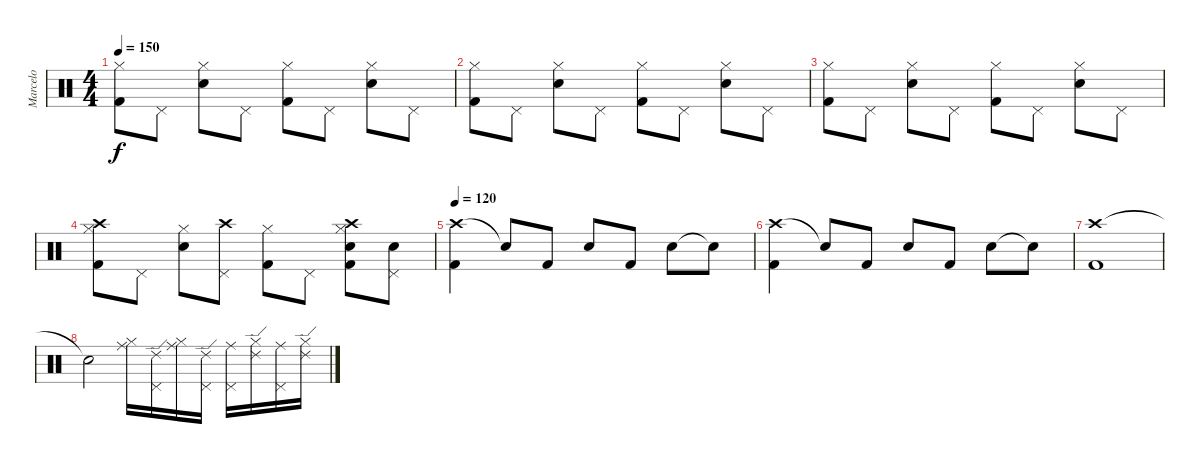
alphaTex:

\track ("Marcelo" "Marcelo") {instrument percussion}
\staff {score}
\articulation defaults
\ts (4 4)
\tempo 150
\clef neutral
\ks c
("Hi-Hat (closed)" "Kick (hit) 2").8{dy f} "Pedal Hi-Hat (hit)".8 ("Hi-Hat (closed)" "Electric Snare (hit)").8 "Pedal Hi-Hat (hit)".8 ("Hi-Hat (closed)" "Kick (hit) 2").8 "Pedal Hi-Hat (hit)".8 ("Hi-Hat (closed)" "Electric Snare (hit)").8 "Pedal Hi-Hat (hit)".8 |
("Hi-Hat (closed)" "Kick (hit) 2").8 "Pedal Hi-Hat (hit)".8 ("Hi-Hat (closed)" "Electric Snare (hit)").8 "Pedal Hi-Hat (hit)".8 ("Hi-Hat (closed)" "Kick (hit) 2").8 "Pedal Hi-Hat (hit)".8 ("Hi-Hat (closed)" "Electric Snare (hit)").8 "Pedal Hi-Hat (hit)".8 |
("Hi-Hat (closed)" "Kick (hit) 2").8 "Pedal Hi-Hat (hit)".8 ("Hi-Hat (closed)" "Electric Snare (hit)").8 "Pedal Hi-Hat (hit)".8 ("Hi-Hat (closed)" "Kick (hit) 2").8 "Pedal Hi-Hat (hit)".8 ("Hi-Hat (closed)" "Electric Snare (hit)").8 "Pedal Hi-Hat (hit)".8 |
("Hi-Hat (closed)" "Kick (hit) 2" "Crash high (hit)").8 "Pedal Hi-Hat (hit)".8 ("Hi-Hat (closed)" "Electric Snare (hit)").8 ("Pedal Hi-Hat (hit)" "Crash high (hit)").8 ("Hi-Hat (closed)" "Kick (hit) 2").8 "Pedal Hi-Hat (hit)".8 ("Hi-Hat (closed)" "Electric Snare (hit)" "Crash high (hit)" "Kick (hit) 2").8 ("Pedal Hi-Hat (hit)" "Electric Snare (hit)").8 |
\tempo 120
("Crash high (hit)" "Kick (hit) 2").4 "Snare (hit)"{t}.8 "Kick (hit) 2".8 "Snare (hit) 2".8 "Kick (hit) 2".8 "Snare (hit) 2".8 "Snare (hit)"{t}.8 |
("Crash high (hit)" "Kick (hit) 2").4 "Snare (hit)"{t}.8 "Kick (hit) 2".8 "Snare (hit) 2".8 "Kick (hit) 2".8 "Snare (hit) 2".8 "Snare (hit)"{t}.8 |
("Crash high (hit)" "Kick (hit) 2").1 |
"Snare (hit)"{t}.2 ("Hi-Hat (closed)" "Ride (middle)").16 ("Pedal Hi-Hat (hit)" "Ride (edge) 2").16 ("Hi-Hat (closed)" "Ride (middle)").16 ("Pedal Hi-Hat (hit)" "Ride (edge) 2").16 ("Pedal Hi-Hat (hit)" "Ride (middle)").16 ("Hi-Hat (closed)" "Ride (edge) 2").16 ("Pedal Hi-Hat (hit)" "Ride (middle)").16 ("Hi-Hat (closed)" "Ride (edge) 2").16
